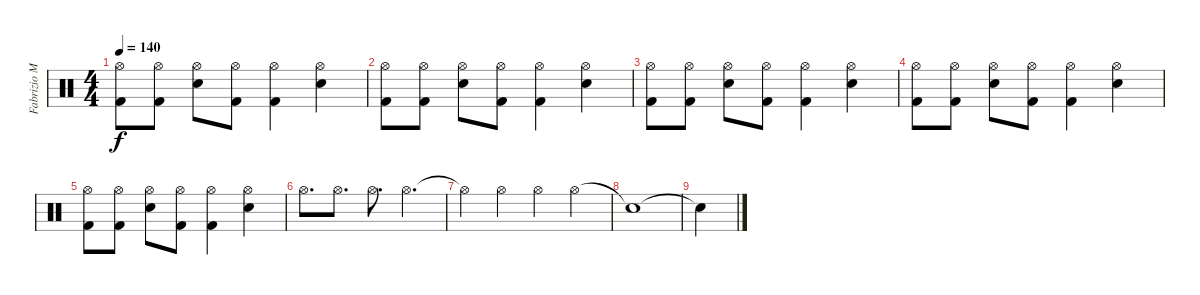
\track ("Fabrizio Moretti" "Fabrizio M") {instrument percussion}
\staff {score}
\articulation defaults
\ts (4 4)
\tempo 140
\clef neutral
\ks c
("Kick (hit) 2" "Hi-Hat (open)").8{dy f} ("Kick (hit) 2" "Hi-Hat (open)").8 ("Electric Snare (hit)" "Hi-Hat (open)").8 ("Kick (hit) 2" "Hi-Hat (open)").8 ("Kick (hit) 2" "Hi-Hat (open)").4 ("Electric Snare (hit)" "Hi-Hat (open)").4 |
("Kick (hit) 2" "Hi-Hat (open)").8 ("Kick (hit) 2" "Hi-Hat (open)").8 ("Electric Snare (hit)" "Hi-Hat (open)").8 ("Kick (hit) 2" "Hi-Hat (open)").8 ("Kick (hit) 2" "Hi-Hat (open)").4 ("Electric Snare (hit)" "Hi-Hat (open)").4 |
("Kick (hit) 2" "Hi-Hat (open)").8 ("Kick (hit) 2" "Hi-Hat (open)").8 ("Electric Snare (hit)" "Hi-Hat (open)").8 ("Kick (hit) 2" "Hi-Hat (open)").8 ("Kick (hit) 2" "Hi-Hat (open)").4 ("Electric Snare (hit)" "Hi-Hat (open)").4 |
("Kick (hit) 2" "Hi-Hat (open)").8 ("Kick (hit) 2" "Hi-Hat (open)").8 ("Electric Snare (hit)" "Hi-Hat (open)").8 ("Kick (hit) 2" "Hi-Hat (open)").8 ("Kick (hit) 2" "Hi-Hat (open)").4 ("Electric Snare (hit)" "Hi-Hat (open)").4 |
("Kick (hit) 2" "Hi-Hat (open)").8 ("Kick (hit) 2" "Hi-Hat (open)").8 ("Electric Snare (hit)" "Hi-Hat (open)").8 ("Kick (hit) 2" "Hi-Hat (open)").8 ("Kick (hit) 2" "Hi-Hat (open)").4 ("Electric Snare (hit)" "Hi-Hat (open)").4 |
"Hi-Hat (open)".8{d} "Hi-Hat (open)".8{d} "Hi-Hat (open)".8{d} "Hi-Hat (open)".4{d} |
"Hi-Hat (open)"{t}.4 "Hi-Hat (open)".4 "Hi-Hat (open)".4 "Hi-Hat (open)".4 |
"Snare (hit)"{t}.1 |
"Snare (hit)"{t}.4
